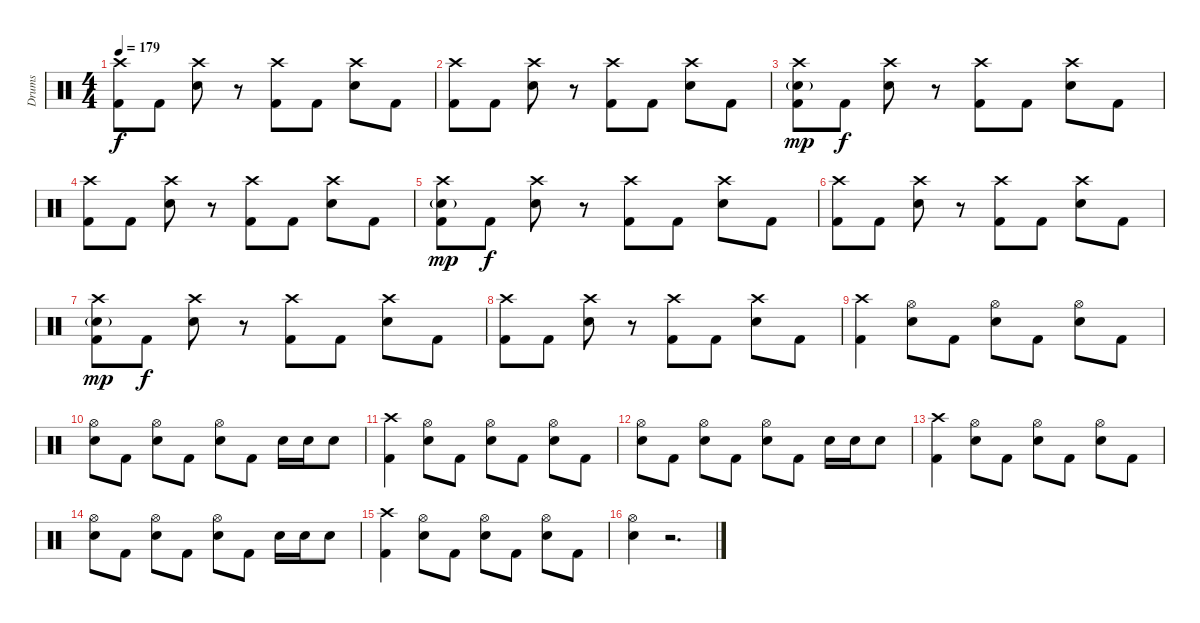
\track ("Drums" "Drums") {instrument percussion}
\staff {score}
\articulation defaults
\ts (4 4)
\tempo 179
\clef neutral
\ks c
("Crash high (hit)" "Kick (hit) 2").8{dy f} "Kick (hit) 2".8 ("Crash high (hit)" "Snare (hit) 2").8 r.8 ("Crash high (hit)" "Kick (hit) 2").8 "Kick (hit) 2".8 ("Crash high (hit)" "Snare (hit) 2").8 "Kick (hit) 2".8 |
("Crash high (hit)" "Kick (hit) 2").8 "Kick (hit) 2".8 ("Crash high (hit)" "Snare (hit) 2").8 r.8 ("Crash high (hit)" "Kick (hit) 2").8 "Kick (hit) 2".8 ("Crash high (hit)" "Snare (hit) 2").8 "Kick (hit) 2".8 |
("Crash high (hit)" "Snare (hit) 2"{g} "Kick (hit) 2").8{dy mp} "Kick (hit) 2".8{dy f} ("Crash high (hit)" "Snare (hit) 2").8 r.8 ("Crash high (hit)" "Kick (hit) 2").8 "Kick (hit) 2".8 ("Crash high (hit)" "Snare (hit) 2").8 "Kick (hit) 2".8 |
("Crash high (hit)" "Kick (hit) 2").8 "Kick (hit) 2".8 ("Crash high (hit)" "Snare (hit) 2").8 r.8 ("Crash high (hit)" "Kick (hit) 2").8 "Kick (hit) 2".8 ("Crash high (hit)" "Snare (hit) 2").8 "Kick (hit) 2".8 |
("Crash high (hit)" "Snare (hit) 2"{g} "Kick (hit) 2").8{dy mp} "Kick (hit) 2".8{dy f} ("Crash high (hit)" "Snare (hit) 2").8 r.8 ("Crash high (hit)" "Kick (hit) 2").8 "Kick (hit) 2".8 ("Crash high (hit)" "Snare (hit) 2").8 "Kick (hit) 2".8 |
("Crash high (hit)" "Kick (hit) 2").8 "Kick (hit) 2".8 ("Crash high (hit)" "Snare (hit) 2").8 r.8 ("Crash high (hit)" "Kick (hit) 2").8 "Kick (hit) 2".8 ("Crash high (hit)" "Snare (hit) 2").8 "Kick (hit) 2".8 |
("Crash high (hit)" "Snare (hit) 2"{g} "Kick (hit) 2").8{dy mp} "Kick (hit) 2".8{dy f} ("Crash high (hit)" "Snare (hit) 2").8 r.8 ("Crash high (hit)" "Kick (hit) 2").8 "Kick (hit) 2".8 ("Crash high (hit)" "Snare (hit) 2").8 "Kick (hit) 2".8 |
("Crash high (hit)" "Kick (hit) 2").8 "Kick (hit) 2".8 ("Crash high (hit)" "Snare (hit) 2").8 r.8 ("Crash high (hit)" "Kick (hit) 2").8 "Kick (hit) 2".8 ("Crash high (hit)" "Snare (hit) 2").8 "Kick (hit) 2".8 |
("Crash high (hit)" "Kick (hit) 2").4 ("Hi-Hat (open)" "Snare (hit) 2").8 "Kick (hit) 2".8 ("Hi-Hat (open)" "Snare (hit) 2").8 "Kick (hit) 2".8 ("Hi-Hat (open)" "Snare (hit) 2").8 "Kick (hit) 2".8 |
("Hi-Hat (open)" "Snare (hit) 2").8 "Kick (hit) 2".8 ("Hi-Hat (open)" "Snare (hit) 2").8 "Kick (hit) 2".8 ("Hi-Hat (open)" "Snare (hit) 2").8 "Kick (hit) 2".8 "Snare (hit) 2".16 "Snare (hit) 2".16 "Snare (hit) 2".8 |
("Crash high (hit)" "Kick (hit) 2").4 ("Hi-Hat (open)" "Snare (hit) 2").8 "Kick (hit) 2".8 ("Hi-Hat (open)" "Snare (hit) 2").8 "Kick (hit) 2".8 ("Hi-Hat (open)" "Snare (hit) 2").8 "Kick (hit) 2".8 |
("Hi-Hat (open)" "Snare (hit) 2").8 "Kick (hit) 2".8 ("Hi-Hat (open)" "Snare (hit) 2").8 "Kick (hit) 2".8 ("Hi-Hat (open)" "Snare (hit) 2").8 "Kick (hit) 2".8 "Snare (hit) 2".16 "Snare (hit) 2".16 "Snare (hit) 2".8 |
("Crash high (hit)" "Kick (hit) 2").4 ("Hi-Hat (open)" "Snare (hit) 2").8 "Kick (hit) 2".8 ("Hi-Hat (open)" "Snare (hit) 2").8 "Kick (hit) 2".8 ("Hi-Hat (open)" "Snare (hit) 2").8 "Kick (hit) 2".8 |
("Hi-Hat (open)" "Snare (hit) 2").8 "Kick (hit) 2".8 ("Hi-Hat (open)" "Snare (hit) 2").8 "Kick (hit) 2".8 ("Hi-Hat (open)" "Snare (hit) 2").8 "Kick (hit) 2".8 "Snare (hit) 2".16 "Snare (hit) 2".16 "Snare (hit) 2".8 |
("Crash high (hit)" "Kick (hit) 2").4 ("Hi-Hat (open)" "Snare (hit) 2").8 "Kick (hit) 2".8 ("Hi-Hat (open)" "Snare (hit) 2").8 "Kick (hit) 2".8 ("Hi-Hat (open)" "Snare (hit) 2").8 "Kick (hit) 2".8 |
("Hi-Hat (open)" "Snare (hit) 2").4 r.2{d}
